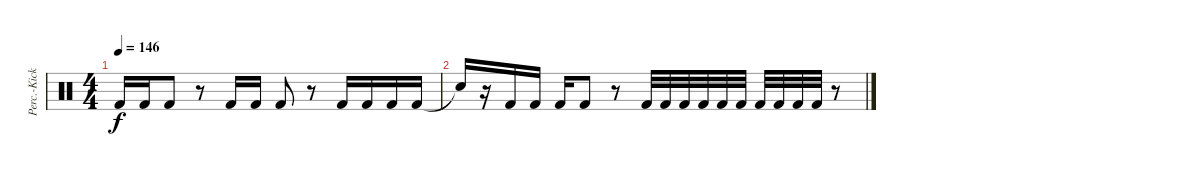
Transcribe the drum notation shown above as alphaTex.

\track ("Perc.-Kick" "Perc.-Kick") {instrument percussion}
\staff {score}
\articulation defaults
\ts (4 4)
\tempo 146
\clef neutral
\ks c "Kick (hit) 2".16{dy f} "Kick (hit) 2".16 "Kick (hit) 2".8
r.8 "Kick (hit) 2".16 "Kick (hit) 2".16 "Kick (hit) 2".8 r.8 "Kick (hit) 2".16 "Kick (hit) 2".16 "Kick (hit) 2".16 "Kick (hit) 2".16 |
"Snare (hit)"{t}.16 r.16 "Kick (hit) 2".16 "Kick (hit) 2".16 "Kick (hit) 2".16 "Kick (hit) 2".8 r.8 "Kick (hit) 2".32 "Kick (hit) 2".32 "Kick (hit) 2".32 "Kick (hit) 2".32 "Kick (hit) 2".32 "Kick (hit) 2".32 "Kick (hit) 2".32 "Kick (hit) 2".32 "Kick (hit) 2".32 "Kick (hit) 2".32 r.8
